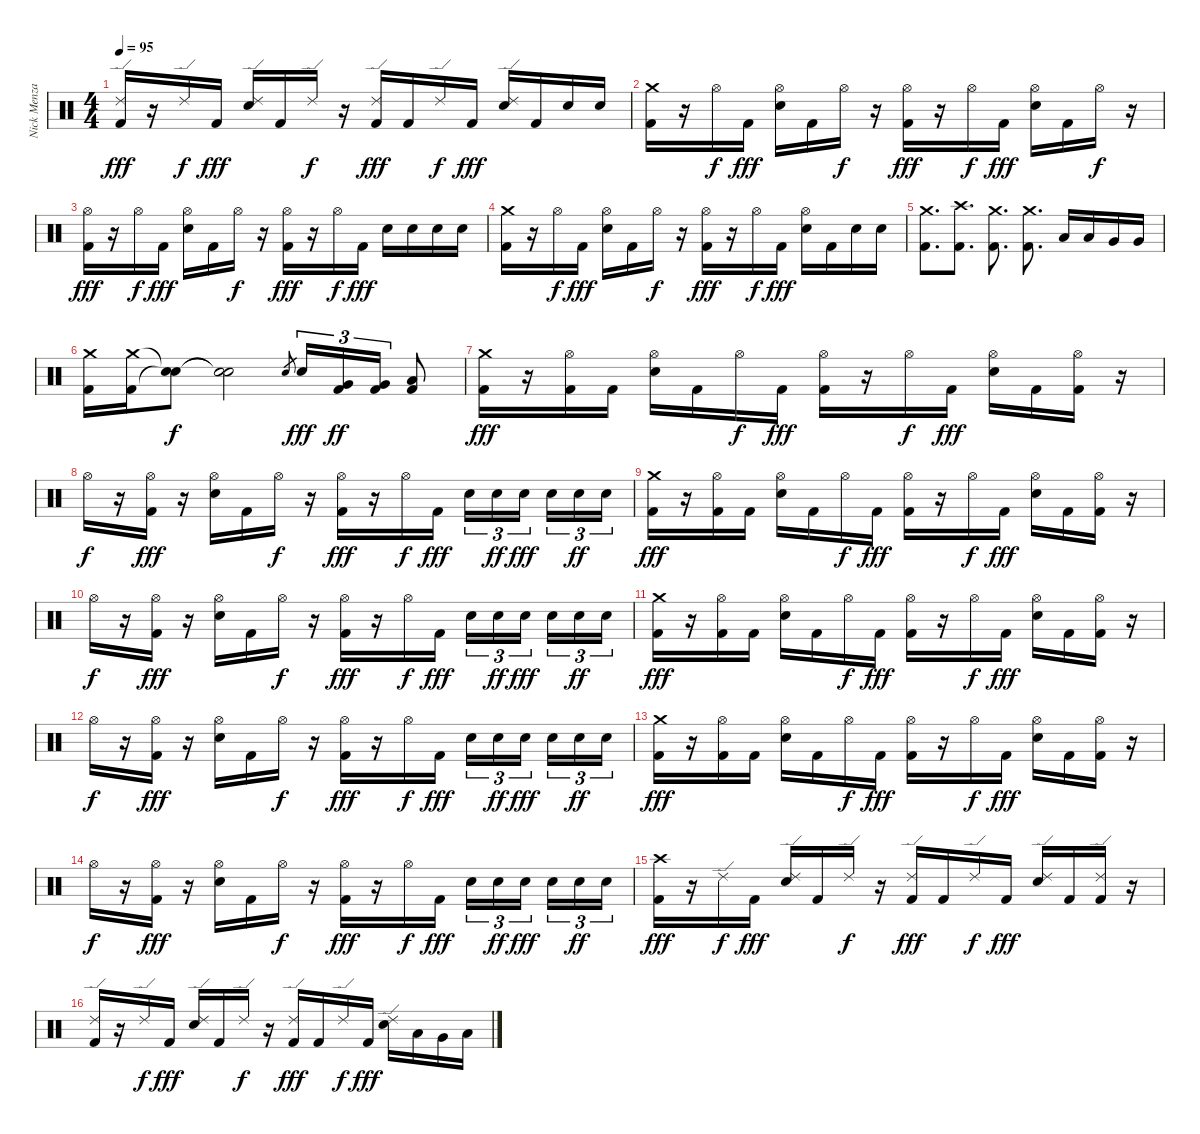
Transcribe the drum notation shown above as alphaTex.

\track ("Nick Menza" "Nick Menza") {instrument percussion}
\staff {score}
\articulation defaults
\ts (4 4)
\tempo 95
\clef neutral
\ks c
("Kick (hit) 2" "Ride (edge) 2").16{dy fff} r.16 "Ride (edge) 2".16{dy f} "Kick (hit) 2".16{dy fff} ("Electric Snare (hit)" "Ride (edge) 2").16 "Kick (hit) 2".16 "Ride (edge) 2".16{dy f} r.16 ("Kick (hit) 2" "Ride (edge) 2").16{dy fff} "Kick (hit) 2".16 "Ride (edge) 2".16{dy f} "Kick (hit) 2".16{dy fff} ("Electric Snare (hit)" "Ride (edge) 2").16 "Kick (hit) 2".16 "Electric Snare (hit)".16 "Electric Snare (hit)".16 |
("Kick (hit) 2" "Crash medium (hit)").16 r.16 "Hi-Hat (open)".16{dy f} "Kick (hit) 2".16{dy fff} ("Electric Snare (hit)" "Hi-Hat (open)").16 "Kick (hit) 2".16 "Hi-Hat (open)".16{dy f} r.16 ("Kick (hit) 2" "Hi-Hat (open)").16{dy fff} r.16 "Hi-Hat (open)".16{dy f} "Kick (hit) 2".16{dy fff} ("Electric Snare (hit)" "Hi-Hat (open)").16 "Kick (hit) 2".16 "Hi-Hat (open)".16{dy f} r.16 |
("Kick (hit) 2" "Hi-Hat (open)").16{dy fff} r.16 "Hi-Hat (open)".16{dy f} "Kick (hit) 2".16{dy fff} ("Electric Snare (hit)" "Hi-Hat (open)").16 "Kick (hit) 2".16 "Hi-Hat (open)".16{dy f} r.16 ("Kick (hit) 2" "Hi-Hat (open)").16{dy fff} r.16 "Hi-Hat (open)".16{dy f} "Kick (hit) 2".16{dy fff} "Electric Snare (hit)".16 "Electric Snare (hit)".16 "Electric Snare (hit)".16 "Electric Snare (hit)".16 |
("Kick (hit) 2" "Crash medium (hit)").16 r.16 "Hi-Hat (open)".16{dy f} "Kick (hit) 2".16{dy fff} ("Electric Snare (hit)" "Hi-Hat (open)").16 "Kick (hit) 2".16 "Hi-Hat (open)".16{dy f} r.16 ("Kick (hit) 2" "Hi-Hat (open)").16{dy fff} r.16 "Hi-Hat (open)".16{dy f} "Kick (hit) 2".16{dy fff} ("Electric Snare (hit)" "Hi-Hat (open)").16 "Kick (hit) 2".16 "Electric Snare (hit)".16 "Electric Snare (hit)".16 |
("Kick (hit) 2" "Crash medium (hit)").8{d} ("Kick (hit) 2" "Crash high (hit)").8{d} ("Kick (hit) 2" "Crash medium (hit)").8{d} ("Kick (hit) 2" "Crash medium (hit)").8{d} "Low Tom (hit)".16 "Low Tom (hit)".16 "Very Low Tom (hit)".16 "Very Low Tom (hit)".16 |
("Kick (hit) 2" "Crash medium (hit)").16 ("Kick (hit) 2" "Crash medium (hit)").16 ("Snare (hit)"{t} "Snare (hit)"{t}).8{dy f} ("Snare (hit)"{t} "Snare (hit)"{t}).2 "Electric Snare (hit)".8{gr} "Electric Snare (hit)".16{tu (3 2) dy fff} ("Kick (hit) 2" "Very Low Tom (hit)").16{tu (3 2) dy ff} ("Kick (hit) 2" "Very Low Tom (hit)").16{tu (3 2)} ("Kick (hit) 2" "Low Floor Tom (hit)").8 |
("Kick (hit) 2" "Crash medium (hit)").16{dy fff} r.16 ("Kick (hit) 2" "Hi-Hat (open)").16 "Kick (hit) 2".16 ("Electric Snare (hit)" "Hi-Hat (open)").16 "Kick (hit) 2".16 "Hi-Hat (open)".16{dy f} "Kick (hit) 2".16{dy fff} ("Kick (hit) 2" "Hi-Hat (open)").16 r.16 "Hi-Hat (open)".16{dy f} "Kick (hit) 2".16{dy fff} ("Electric Snare (hit)" "Hi-Hat (open)").16 "Kick (hit) 2".16 ("Kick (hit) 2" "Hi-Hat (open)").16 r.16 |
"Hi-Hat (open)".16{dy f} r.16 ("Kick (hit) 2" "Hi-Hat (open)").16{dy fff} r.16 ("Electric Snare (hit)" "Hi-Hat (open)").16 "Kick (hit) 2".16 "Hi-Hat (open)".16{dy f} r.16 ("Kick (hit) 2" "Hi-Hat (open)").16{dy fff} r.16 "Hi-Hat (open)".16{dy f} "Kick (hit) 2".16{dy fff} "Electric Snare (hit)".16{tu (3 2)} "Electric Snare (hit)".16{tu (3 2) dy ff} "Electric Snare (hit)".16{tu (3 2) dy fff} "Electric Snare (hit)".16{tu (3 2)} "Electric Snare (hit)".16{tu (3 2) dy ff} "Electric Snare (hit)".16{tu (3 2)} |
("Kick (hit) 2" "Crash medium (hit)").16{dy fff} r.16 ("Kick (hit) 2" "Hi-Hat (open)").16 "Kick (hit) 2".16 ("Electric Snare (hit)" "Hi-Hat (open)").16 "Kick (hit) 2".16 "Hi-Hat (open)".16{dy f} "Kick (hit) 2".16{dy fff} ("Kick (hit) 2" "Hi-Hat (open)").16 r.16 "Hi-Hat (open)".16{dy f} "Kick (hit) 2".16{dy fff} ("Electric Snare (hit)" "Hi-Hat (open)").16 "Kick (hit) 2".16 ("Kick (hit) 2" "Hi-Hat (open)").16 r.16 |
"Hi-Hat (open)".16{dy f} r.16 ("Kick (hit) 2" "Hi-Hat (open)").16{dy fff} r.16 ("Electric Snare (hit)" "Hi-Hat (open)").16 "Kick (hit) 2".16 "Hi-Hat (open)".16{dy f} r.16 ("Kick (hit) 2" "Hi-Hat (open)").16{dy fff} r.16 "Hi-Hat (open)".16{dy f} "Kick (hit) 2".16{dy fff} "Electric Snare (hit)".16{tu (3 2)} "Electric Snare (hit)".16{tu (3 2) dy ff} "Electric Snare (hit)".16{tu (3 2) dy fff} "Electric Snare (hit)".16{tu (3 2)} "Electric Snare (hit)".16{tu (3 2) dy ff} "Electric Snare (hit)".16{tu (3 2)} |
("Kick (hit) 2" "Crash medium (hit)").16{dy fff} r.16 ("Kick (hit) 2" "Hi-Hat (open)").16 "Kick (hit) 2".16 ("Electric Snare (hit)" "Hi-Hat (open)").16 "Kick (hit) 2".16 "Hi-Hat (open)".16{dy f} "Kick (hit) 2".16{dy fff} ("Kick (hit) 2" "Hi-Hat (open)").16 r.16 "Hi-Hat (open)".16{dy f} "Kick (hit) 2".16{dy fff} ("Electric Snare (hit)" "Hi-Hat (open)").16 "Kick (hit) 2".16 ("Kick (hit) 2" "Hi-Hat (open)").16 r.16 |
"Hi-Hat (open)".16{dy f} r.16 ("Kick (hit) 2" "Hi-Hat (open)").16{dy fff} r.16 ("Electric Snare (hit)" "Hi-Hat (open)").16 "Kick (hit) 2".16 "Hi-Hat (open)".16{dy f} r.16 ("Kick (hit) 2" "Hi-Hat (open)").16{dy fff} r.16 "Hi-Hat (open)".16{dy f} "Kick (hit) 2".16{dy fff} "Electric Snare (hit)".16{tu (3 2)} "Electric Snare (hit)".16{tu (3 2) dy ff} "Electric Snare (hit)".16{tu (3 2) dy fff} "Electric Snare (hit)".16{tu (3 2)} "Electric Snare (hit)".16{tu (3 2) dy ff} "Electric Snare (hit)".16{tu (3 2)} |
("Kick (hit) 2" "Crash medium (hit)").16{dy fff} r.16 ("Kick (hit) 2" "Hi-Hat (open)").16 "Kick (hit) 2".16 ("Electric Snare (hit)" "Hi-Hat (open)").16 "Kick (hit) 2".16 "Hi-Hat (open)".16{dy f} "Kick (hit) 2".16{dy fff} ("Kick (hit) 2" "Hi-Hat (open)").16 r.16 "Hi-Hat (open)".16{dy f} "Kick (hit) 2".16{dy fff} ("Electric Snare (hit)" "Hi-Hat (open)").16 "Kick (hit) 2".16 ("Kick (hit) 2" "Hi-Hat (open)").16 r.16 |
"Hi-Hat (open)".16{dy f} r.16 ("Kick (hit) 2" "Hi-Hat (open)").16{dy fff} r.16 ("Electric Snare (hit)" "Hi-Hat (open)").16 "Kick (hit) 2".16 "Hi-Hat (open)".16{dy f} r.16 ("Kick (hit) 2" "Hi-Hat (open)").16{dy fff} r.16 "Hi-Hat (open)".16{dy f} "Kick (hit) 2".16{dy fff} "Electric Snare (hit)".16{tu (3 2)} "Electric Snare (hit)".16{tu (3 2) dy ff} "Electric Snare (hit)".16{tu (3 2) dy fff} "Electric Snare (hit)".16{tu (3 2)} "Electric Snare (hit)".16{tu (3 2) dy ff} "Electric Snare (hit)".16{tu (3 2)} |
("Kick (hit) 2" "Crash high (hit)").16{dy fff} r.16 "Ride (edge) 2".16{dy f} "Kick (hit) 2".16{dy fff} ("Electric Snare (hit)" "Ride (edge) 2").16 "Kick (hit) 2".16 "Ride (edge) 2".16{dy f} r.16 ("Kick (hit) 2" "Ride (edge) 2").16{dy fff} "Kick (hit) 2".16 "Ride (edge) 2".16{dy f} "Kick (hit) 2".16{dy fff} ("Electric Snare (hit)" "Ride (edge) 2").16 "Kick (hit) 2".16 ("Kick (hit) 2" "Ride (edge) 2").16 r.16 |
("Kick (hit) 2" "Ride (edge) 2").16 r.16 "Ride (edge) 2".16{dy f} "Kick (hit) 2".16{dy fff} ("Electric Snare (hit)" "Ride (edge) 2").16 "Kick (hit) 2".16 "Ride (edge) 2".16{dy f} r.16 ("Kick (hit) 2" "Ride (edge) 2").16{dy fff} "Kick (hit) 2".16 "Ride (edge) 2".16{dy f} "Kick (hit) 2".16{dy fff} ("Electric Snare (hit)" "Ride (edge) 2").16 "Low Tom (hit)".16 "Very Low Tom (hit)".16 "Low Floor Tom (hit)".16
